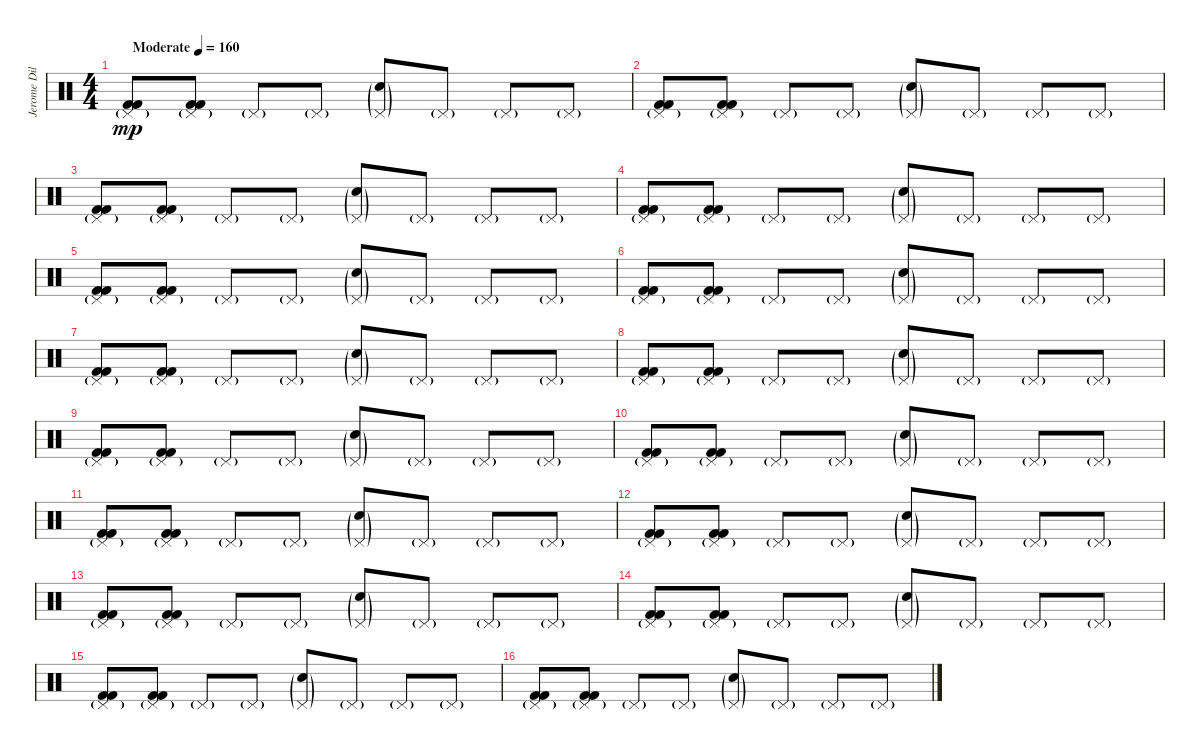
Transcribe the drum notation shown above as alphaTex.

\track ("Jerome Dillon" "Jerome Dil") {instrument percussion}
\staff {score}
\articulation defaults
\ts (4 4)
\tempo (160 "Moderate")
\clef neutral
\ks c
("Pedal Hi-Hat (hit)"{g} "Kick (hit) 2" "Kick (hit) 2").8{dy mp} ("Pedal Hi-Hat (hit)"{g} "Kick (hit) 2" "Kick (hit) 2").8 "Pedal Hi-Hat (hit)"{g}.8 "Pedal Hi-Hat (hit)"{g}.8 ("Pedal Hi-Hat (hit)"{g} "Electric Snare (hit)"{g}).8 "Pedal Hi-Hat (hit)"{g}.8 "Pedal Hi-Hat (hit)"{g}.8 "Pedal Hi-Hat (hit)"{g}.8 |
("Pedal Hi-Hat (hit)"{g} "Kick (hit) 2" "Kick (hit) 2").8 ("Pedal Hi-Hat (hit)"{g} "Kick (hit) 2" "Kick (hit) 2").8 "Pedal Hi-Hat (hit)"{g}.8 "Pedal Hi-Hat (hit)"{g}.8 ("Pedal Hi-Hat (hit)"{g} "Electric Snare (hit)"{g}).8 "Pedal Hi-Hat (hit)"{g}.8 "Pedal Hi-Hat (hit)"{g}.8 "Pedal Hi-Hat (hit)"{g}.8 |
("Pedal Hi-Hat (hit)"{g} "Kick (hit) 2" "Kick (hit) 2").8 ("Pedal Hi-Hat (hit)"{g} "Kick (hit) 2" "Kick (hit) 2").8 "Pedal Hi-Hat (hit)"{g}.8 "Pedal Hi-Hat (hit)"{g}.8 ("Pedal Hi-Hat (hit)"{g} "Electric Snare (hit)"{g}).8 "Pedal Hi-Hat (hit)"{g}.8 "Pedal Hi-Hat (hit)"{g}.8 "Pedal Hi-Hat (hit)"{g}.8 |
("Pedal Hi-Hat (hit)"{g} "Kick (hit) 2" "Kick (hit) 2").8 ("Pedal Hi-Hat (hit)"{g} "Kick (hit) 2" "Kick (hit) 2").8 "Pedal Hi-Hat (hit)"{g}.8 "Pedal Hi-Hat (hit)"{g}.8 ("Pedal Hi-Hat (hit)"{g} "Electric Snare (hit)"{g}).8 "Pedal Hi-Hat (hit)"{g}.8 "Pedal Hi-Hat (hit)"{g}.8 "Pedal Hi-Hat (hit)"{g}.8 |
("Pedal Hi-Hat (hit)"{g} "Kick (hit) 2" "Kick (hit) 2").8 ("Pedal Hi-Hat (hit)"{g} "Kick (hit) 2" "Kick (hit) 2").8 "Pedal Hi-Hat (hit)"{g}.8 "Pedal Hi-Hat (hit)"{g}.8 ("Pedal Hi-Hat (hit)"{g} "Electric Snare (hit)"{g}).8 "Pedal Hi-Hat (hit)"{g}.8 "Pedal Hi-Hat (hit)"{g}.8 "Pedal Hi-Hat (hit)"{g}.8 |
("Pedal Hi-Hat (hit)"{g} "Kick (hit) 2" "Kick (hit) 2").8 ("Pedal Hi-Hat (hit)"{g} "Kick (hit) 2" "Kick (hit) 2").8 "Pedal Hi-Hat (hit)"{g}.8 "Pedal Hi-Hat (hit)"{g}.8 ("Pedal Hi-Hat (hit)"{g} "Electric Snare (hit)"{g}).8 "Pedal Hi-Hat (hit)"{g}.8 "Pedal Hi-Hat (hit)"{g}.8 "Pedal Hi-Hat (hit)"{g}.8 |
("Pedal Hi-Hat (hit)"{g} "Kick (hit) 2" "Kick (hit) 2").8 ("Pedal Hi-Hat (hit)"{g} "Kick (hit) 2" "Kick (hit) 2").8 "Pedal Hi-Hat (hit)"{g}.8 "Pedal Hi-Hat (hit)"{g}.8 ("Pedal Hi-Hat (hit)"{g} "Electric Snare (hit)"{g}).8 "Pedal Hi-Hat (hit)"{g}.8 "Pedal Hi-Hat (hit)"{g}.8 "Pedal Hi-Hat (hit)"{g}.8 |
("Pedal Hi-Hat (hit)"{g} "Kick (hit) 2" "Kick (hit) 2").8 ("Pedal Hi-Hat (hit)"{g} "Kick (hit) 2" "Kick (hit) 2").8 "Pedal Hi-Hat (hit)"{g}.8 "Pedal Hi-Hat (hit)"{g}.8 ("Pedal Hi-Hat (hit)"{g} "Electric Snare (hit)"{g}).8 "Pedal Hi-Hat (hit)"{g}.8 "Pedal Hi-Hat (hit)"{g}.8 "Pedal Hi-Hat (hit)"{g}.8 |
("Pedal Hi-Hat (hit)"{g} "Kick (hit) 2" "Kick (hit) 2").8 ("Pedal Hi-Hat (hit)"{g} "Kick (hit) 2" "Kick (hit) 2").8 "Pedal Hi-Hat (hit)"{g}.8 "Pedal Hi-Hat (hit)"{g}.8 ("Pedal Hi-Hat (hit)"{g} "Electric Snare (hit)"{g}).8 "Pedal Hi-Hat (hit)"{g}.8 "Pedal Hi-Hat (hit)"{g}.8 "Pedal Hi-Hat (hit)"{g}.8 |
("Pedal Hi-Hat (hit)"{g} "Kick (hit) 2" "Kick (hit) 2").8 ("Pedal Hi-Hat (hit)"{g} "Kick (hit) 2" "Kick (hit) 2").8 "Pedal Hi-Hat (hit)"{g}.8 "Pedal Hi-Hat (hit)"{g}.8 ("Pedal Hi-Hat (hit)"{g} "Electric Snare (hit)"{g}).8 "Pedal Hi-Hat (hit)"{g}.8 "Pedal Hi-Hat (hit)"{g}.8 "Pedal Hi-Hat (hit)"{g}.8 |
("Pedal Hi-Hat (hit)"{g} "Kick (hit) 2" "Kick (hit) 2").8 ("Pedal Hi-Hat (hit)"{g} "Kick (hit) 2" "Kick (hit) 2").8 "Pedal Hi-Hat (hit)"{g}.8 "Pedal Hi-Hat (hit)"{g}.8 ("Pedal Hi-Hat (hit)"{g} "Electric Snare (hit)"{g}).8 "Pedal Hi-Hat (hit)"{g}.8 "Pedal Hi-Hat (hit)"{g}.8 "Pedal Hi-Hat (hit)"{g}.8 |
("Pedal Hi-Hat (hit)"{g} "Kick (hit) 2" "Kick (hit) 2").8 ("Pedal Hi-Hat (hit)"{g} "Kick (hit) 2" "Kick (hit) 2").8 "Pedal Hi-Hat (hit)"{g}.8 "Pedal Hi-Hat (hit)"{g}.8 ("Pedal Hi-Hat (hit)"{g} "Electric Snare (hit)"{g}).8 "Pedal Hi-Hat (hit)"{g}.8 "Pedal Hi-Hat (hit)"{g}.8 "Pedal Hi-Hat (hit)"{g}.8 |
("Pedal Hi-Hat (hit)"{g} "Kick (hit) 2" "Kick (hit) 2").8 ("Pedal Hi-Hat (hit)"{g} "Kick (hit) 2" "Kick (hit) 2").8 "Pedal Hi-Hat (hit)"{g}.8 "Pedal Hi-Hat (hit)"{g}.8 ("Pedal Hi-Hat (hit)"{g} "Electric Snare (hit)"{g}).8 "Pedal Hi-Hat (hit)"{g}.8 "Pedal Hi-Hat (hit)"{g}.8 "Pedal Hi-Hat (hit)"{g}.8 |
("Pedal Hi-Hat (hit)"{g} "Kick (hit) 2" "Kick (hit) 2").8 ("Pedal Hi-Hat (hit)"{g} "Kick (hit) 2" "Kick (hit) 2").8 "Pedal Hi-Hat (hit)"{g}.8 "Pedal Hi-Hat (hit)"{g}.8 ("Pedal Hi-Hat (hit)"{g} "Electric Snare (hit)"{g}).8 "Pedal Hi-Hat (hit)"{g}.8 "Pedal Hi-Hat (hit)"{g}.8 "Pedal Hi-Hat (hit)"{g}.8 |
("Pedal Hi-Hat (hit)"{g} "Kick (hit) 2" "Kick (hit) 2").8 ("Pedal Hi-Hat (hit)"{g} "Kick (hit) 2" "Kick (hit) 2").8 "Pedal Hi-Hat (hit)"{g}.8 "Pedal Hi-Hat (hit)"{g}.8 ("Pedal Hi-Hat (hit)"{g} "Electric Snare (hit)"{g}).8 "Pedal Hi-Hat (hit)"{g}.8 "Pedal Hi-Hat (hit)"{g}.8 "Pedal Hi-Hat (hit)"{g}.8 |
("Pedal Hi-Hat (hit)"{g} "Kick (hit) 2" "Kick (hit) 2").8 ("Pedal Hi-Hat (hit)"{g} "Kick (hit) 2" "Kick (hit) 2").8 "Pedal Hi-Hat (hit)"{g}.8 "Pedal Hi-Hat (hit)"{g}.8 ("Pedal Hi-Hat (hit)"{g} "Electric Snare (hit)"{g}).8 "Pedal Hi-Hat (hit)"{g}.8 "Pedal Hi-Hat (hit)"{g}.8 "Pedal Hi-Hat (hit)"{g}.8
